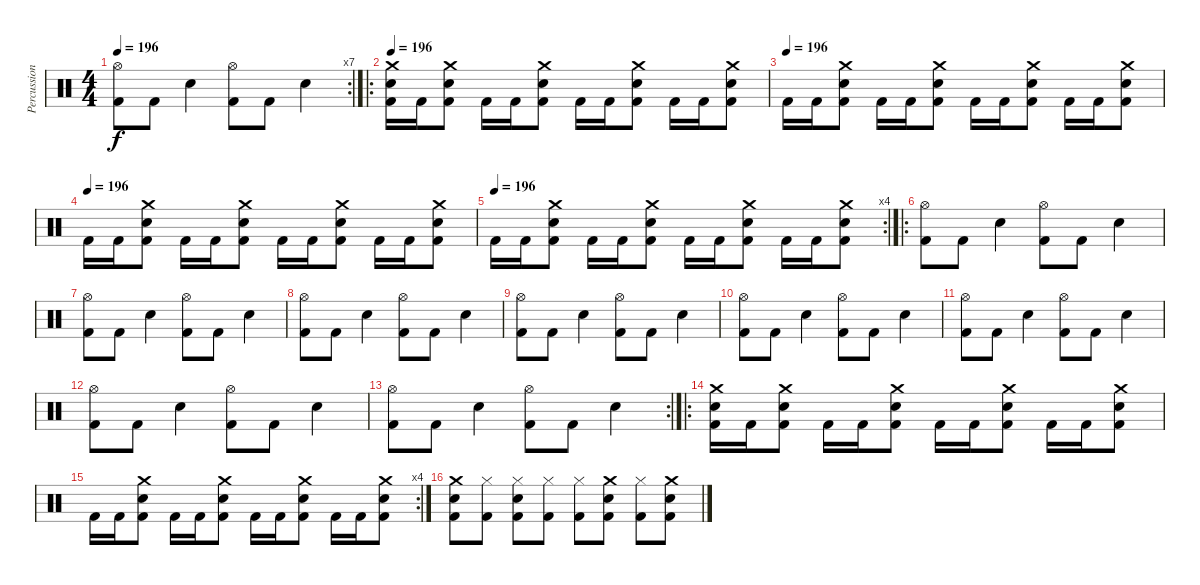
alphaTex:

\track ("Percussions" "Percussion") {instrument percussion}
\staff {score}
\articulation defaults
\rc 7
\ts (4 4)
\tempo 196
\clef neutral
\ks c
("Kick (hit) 2" "Hi-Hat (open)").8{dy f} "Kick (hit) 2".8 "Snare (hit) 2".4 ("Kick (hit) 2" "Hi-Hat (open)").8 "Kick (hit) 2".8 "Snare (hit) 2".4 |
\ro
\tempo 196
("Kick (hit) 2" "Snare (hit) 2" "Crash medium (hit)").16 "Kick (hit) 2".16 ("Kick (hit) 2" "Snare (hit) 2" "Crash medium (hit)").8 "Kick (hit) 2".16 "Kick (hit) 2".16 ("Kick (hit) 2" "Snare (hit) 2" "Crash medium (hit)").8 "Kick (hit) 2".16 "Kick (hit) 2".16 ("Kick (hit) 2" "Snare (hit) 2" "Crash medium (hit)").8 "Kick (hit) 2".16 "Kick (hit) 2".16 ("Kick (hit) 2" "Snare (hit) 2" "Crash medium (hit)").8 |
\tempo (196)
"Kick (hit) 2".16 "Kick (hit) 2".16 ("Kick (hit) 2" "Snare (hit) 2" "Crash medium (hit)").8 "Kick (hit) 2".16 "Kick (hit) 2".16 ("Kick (hit) 2" "Snare (hit) 2" "Crash medium (hit)").8 "Kick (hit) 2".16 "Kick (hit) 2".16 ("Kick (hit) 2" "Snare (hit) 2" "Crash medium (hit)").8 "Kick (hit) 2".16 "Kick (hit) 2".16 ("Kick (hit) 2" "Snare (hit) 2" "Crash medium (hit)").8 |
\tempo (196)
"Kick (hit) 2".16 "Kick (hit) 2".16 ("Kick (hit) 2" "Snare (hit) 2" "Crash medium (hit)").8 "Kick (hit) 2".16 "Kick (hit) 2".16 ("Kick (hit) 2" "Snare (hit) 2" "Crash medium (hit)").8 "Kick (hit) 2".16 "Kick (hit) 2".16 ("Kick (hit) 2" "Snare (hit) 2" "Crash medium (hit)").8 "Kick (hit) 2".16 "Kick (hit) 2".16 ("Kick (hit) 2" "Snare (hit) 2" "Crash medium (hit)").8 |
\rc 4
\tempo (196)
"Kick (hit) 2".16 "Kick (hit) 2".16 ("Kick (hit) 2" "Snare (hit) 2" "Crash medium (hit)").8 "Kick (hit) 2".16 "Kick (hit) 2".16 ("Kick (hit) 2" "Snare (hit) 2" "Crash medium (hit)").8 "Kick (hit) 2".16 "Kick (hit) 2".16 ("Kick (hit) 2" "Snare (hit) 2" "Crash medium (hit)").8 "Kick (hit) 2".16 "Kick (hit) 2".16 ("Kick (hit) 2" "Snare (hit) 2" "Crash medium (hit)").8 |
\ro
("Kick (hit) 2" "Hi-Hat (open)").8 "Kick (hit) 2".8 "Snare (hit) 2".4 ("Kick (hit) 2" "Hi-Hat (open)").8 "Kick (hit) 2".8 "Snare (hit) 2".4 |
("Kick (hit) 2" "Hi-Hat (open)").8 "Kick (hit) 2".8 "Snare (hit) 2".4 ("Kick (hit) 2" "Hi-Hat (open)").8 "Kick (hit) 2".8 "Snare (hit) 2".4 |
("Kick (hit) 2" "Hi-Hat (open)").8 "Kick (hit) 2".8 "Snare (hit) 2".4 ("Kick (hit) 2" "Hi-Hat (open)").8 "Kick (hit) 2".8 "Snare (hit) 2".4 |
("Kick (hit) 2" "Hi-Hat (open)").8 "Kick (hit) 2".8 "Snare (hit) 2".4 ("Kick (hit) 2" "Hi-Hat (open)").8 "Kick (hit) 2".8 "Snare (hit) 2".4 |
("Kick (hit) 2" "Hi-Hat (open)").8 "Kick (hit) 2".8 "Snare (hit) 2".4 ("Kick (hit) 2" "Hi-Hat (open)").8 "Kick (hit) 2".8 "Snare (hit) 2".4 |
("Kick (hit) 2" "Hi-Hat (open)").8 "Kick (hit) 2".8 "Snare (hit) 2".4 ("Kick (hit) 2" "Hi-Hat (open)").8 "Kick (hit) 2".8 "Snare (hit) 2".4 |
("Kick (hit) 2" "Hi-Hat (open)").8 "Kick (hit) 2".8 "Snare (hit) 2".4 ("Kick (hit) 2" "Hi-Hat (open)").8 "Kick (hit) 2".8 "Snare (hit) 2".4 |
\rc 2
("Kick (hit) 2" "Hi-Hat (open)").8 "Kick (hit) 2".8 "Snare (hit) 2".4 ("Kick (hit) 2" "Hi-Hat (open)").8 "Kick (hit) 2".8 "Snare (hit) 2".4 |
\ro
("Kick (hit) 2" "Snare (hit) 2" "Crash medium (hit)").16 "Kick (hit) 2".16 ("Kick (hit) 2" "Snare (hit) 2" "Crash medium (hit)").8 "Kick (hit) 2".16 "Kick (hit) 2".16 ("Kick (hit) 2" "Snare (hit) 2" "Crash medium (hit)").8 "Kick (hit) 2".16 "Kick (hit) 2".16 ("Kick (hit) 2" "Snare (hit) 2" "Crash medium (hit)").8 "Kick (hit) 2".16 "Kick (hit) 2".16 ("Kick (hit) 2" "Snare (hit) 2" "Crash medium (hit)").8 |
\rc 4 "Kick (hit) 2".16 "Kick (hit) 2".16
("Kick (hit) 2" "Snare (hit) 2" "Crash medium (hit)").8 "Kick (hit) 2".16 "Kick (hit) 2".16 ("Kick (hit) 2" "Snare (hit) 2" "Crash medium (hit)").8 "Kick (hit) 2".16 "Kick (hit) 2".16 ("Kick (hit) 2" "Snare (hit) 2" "Crash medium (hit)").8 "Kick (hit) 2".16 "Kick (hit) 2".16 ("Kick (hit) 2" "Snare (hit) 2" "Crash medium (hit)").8 |
("Kick (hit) 2" "Snare (hit) 2" "Crash medium (hit)").8 ("Kick (hit) 2" "Hi-Hat (closed)").8 ("Kick (hit) 2" "Snare (hit) 2" "Hi-Hat (closed)").8 ("Kick (hit) 2" "Hi-Hat (closed)").8 ("Kick (hit) 2" "Hi-Hat (closed)").8 ("Kick (hit) 2" "Snare (hit) 2" "Crash medium (hit)").8 ("Kick (hit) 2" "Hi-Hat (closed)").8 ("Kick (hit) 2" "Snare (hit) 2" "Crash medium (hit)").8
